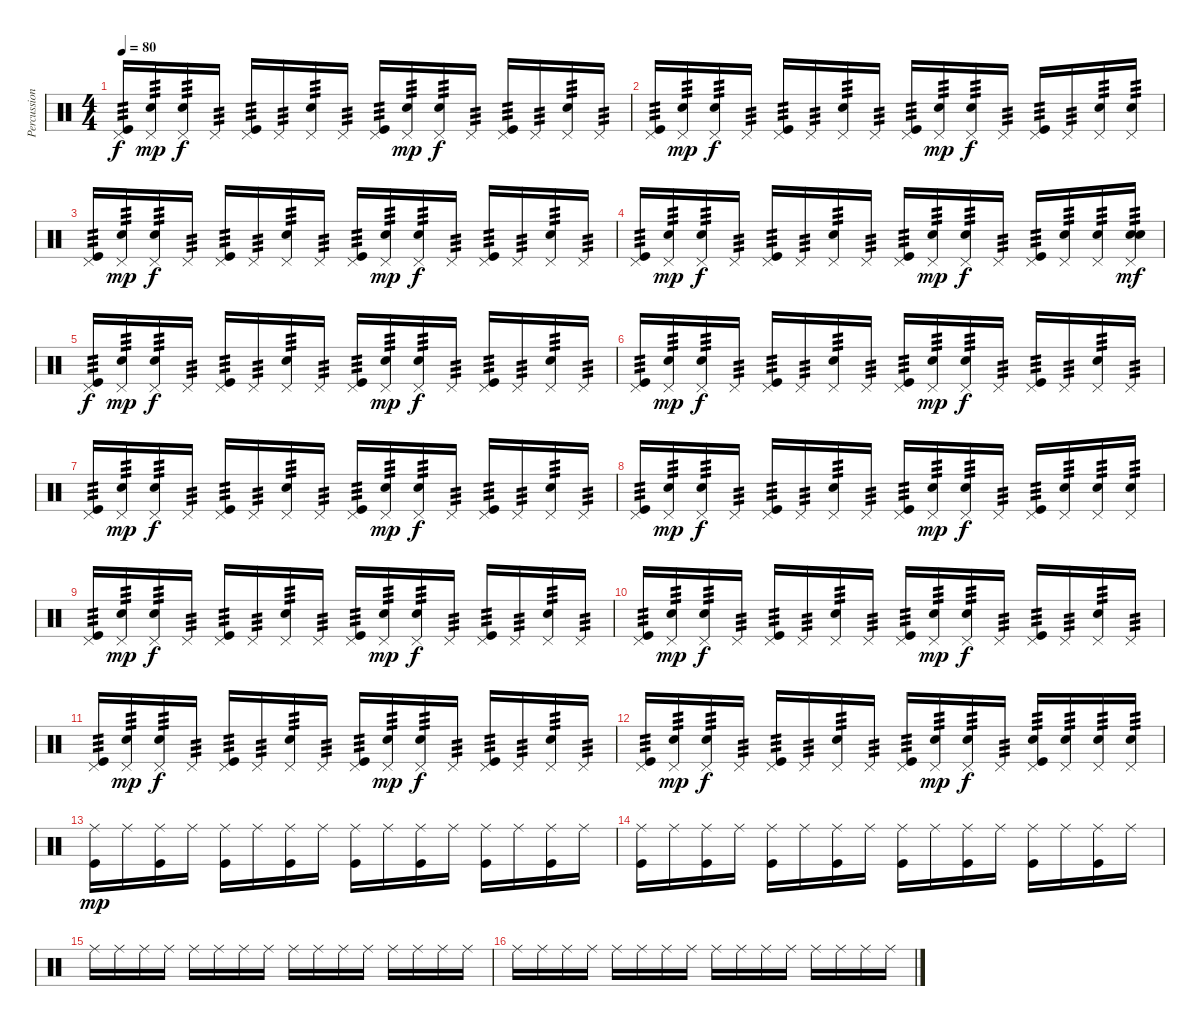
\track ("Percussion" "Percussion") {instrument percussion}
\staff {score}
\articulation defaults
\ts (4 4)
\tempo 80
\clef neutral
\ks c
("Kick (hit)" "Pedal Hi-Hat (hit)").16{tp 3 dy f} ("Hand Clap (hit)" "Pedal Hi-Hat (hit)").16{tp 3 dy mp} ("Hand Clap (hit)" "Pedal Hi-Hat (hit)").16{tp 3 dy f} "Pedal Hi-Hat (hit)".16{tp 3} ("Kick (hit)" "Pedal Hi-Hat (hit)").16{tp 3} "Pedal Hi-Hat (hit)".16{tp 3} ("Hand Clap (hit)" "Pedal Hi-Hat (hit)").16{tp 3} "Pedal Hi-Hat (hit)".16{tp 3} ("Kick (hit)" "Pedal Hi-Hat (hit)").16{tp 3} ("Hand Clap (hit)" "Pedal Hi-Hat (hit)").16{tp 3 dy mp} ("Hand Clap (hit)" "Pedal Hi-Hat (hit)").16{tp 3 dy f} "Pedal Hi-Hat (hit)".16{tp 3} ("Kick (hit)" "Pedal Hi-Hat (hit)").16{tp 3} "Pedal Hi-Hat (hit)".16{tp 3} ("Hand Clap (hit)" "Pedal Hi-Hat (hit)").16{tp 3} "Pedal Hi-Hat (hit)".16{tp 3} |
("Kick (hit)" "Pedal Hi-Hat (hit)").16{tp 3} ("Hand Clap (hit)" "Pedal Hi-Hat (hit)").16{tp 3 dy mp} ("Hand Clap (hit)" "Pedal Hi-Hat (hit)").16{tp 3 dy f} "Pedal Hi-Hat (hit)".16{tp 3} ("Kick (hit)" "Pedal Hi-Hat (hit)").16{tp 3} "Pedal Hi-Hat (hit)".16{tp 3} ("Hand Clap (hit)" "Pedal Hi-Hat (hit)").16{tp 3} "Pedal Hi-Hat (hit)".16{tp 3} ("Kick (hit)" "Pedal Hi-Hat (hit)").16{tp 3} ("Hand Clap (hit)" "Pedal Hi-Hat (hit)").16{tp 3 dy mp} ("Hand Clap (hit)" "Pedal Hi-Hat (hit)").16{tp 3 dy f} "Pedal Hi-Hat (hit)".16{tp 3} ("Kick (hit)" "Pedal Hi-Hat (hit)").16{tp 3} "Pedal Hi-Hat (hit)".16{tp 3} ("Hand Clap (hit)" "Pedal Hi-Hat (hit)").16{tp 3} ("Hand Clap (hit)" "Pedal Hi-Hat (hit)").16{tp 3} |
("Kick (hit)" "Pedal Hi-Hat (hit)").16{tp 3} ("Hand Clap (hit)" "Pedal Hi-Hat (hit)").16{tp 3 dy mp} ("Hand Clap (hit)" "Pedal Hi-Hat (hit)").16{tp 3 dy f} "Pedal Hi-Hat (hit)".16{tp 3} ("Kick (hit)" "Pedal Hi-Hat (hit)").16{tp 3} "Pedal Hi-Hat (hit)".16{tp 3} ("Hand Clap (hit)" "Pedal Hi-Hat (hit)").16{tp 3} "Pedal Hi-Hat (hit)".16{tp 3} ("Kick (hit)" "Pedal Hi-Hat (hit)").16{tp 3} ("Hand Clap (hit)" "Pedal Hi-Hat (hit)").16{tp 3 dy mp} ("Hand Clap (hit)" "Pedal Hi-Hat (hit)").16{tp 3 dy f} "Pedal Hi-Hat (hit)".16{tp 3} ("Kick (hit)" "Pedal Hi-Hat (hit)").16{tp 3} "Pedal Hi-Hat (hit)".16{tp 3} ("Hand Clap (hit)" "Pedal Hi-Hat (hit)").16{tp 3} "Pedal Hi-Hat (hit)".16{tp 3} |
("Kick (hit)" "Pedal Hi-Hat (hit)").16{tp 3} ("Hand Clap (hit)" "Pedal Hi-Hat (hit)").16{tp 3 dy mp} ("Hand Clap (hit)" "Pedal Hi-Hat (hit)").16{tp 3 dy f} "Pedal Hi-Hat (hit)".16{tp 3} ("Kick (hit)" "Pedal Hi-Hat (hit)").16{tp 3} "Pedal Hi-Hat (hit)".16{tp 3} ("Hand Clap (hit)" "Pedal Hi-Hat (hit)").16{tp 3} "Pedal Hi-Hat (hit)".16{tp 3} ("Kick (hit)" "Pedal Hi-Hat (hit)").16{tp 3} ("Hand Clap (hit)" "Pedal Hi-Hat (hit)").16{tp 3 dy mp} ("Hand Clap (hit)" "Pedal Hi-Hat (hit)").16{tp 3 dy f} "Pedal Hi-Hat (hit)".16{tp 3} ("Kick (hit)" "Pedal Hi-Hat (hit)").16{tp 3} ("Electric Snare (hit)" "Pedal Hi-Hat (hit)").16{tp 3} ("Hand Clap (hit)" "Pedal Hi-Hat (hit)").16{tp 3} ("Electric Snare (hit)" "Hand Clap (hit)" "Pedal Hi-Hat (hit)").16{tp 3 dy mf} |
("Kick (hit)" "Pedal Hi-Hat (hit)").16{tp 3 dy f} ("Hand Clap (hit)" "Pedal Hi-Hat (hit)").16{tp 3 dy mp} ("Hand Clap (hit)" "Pedal Hi-Hat (hit)").16{tp 3 dy f} "Pedal Hi-Hat (hit)".16{tp 3} ("Kick (hit)" "Pedal Hi-Hat (hit)").16{tp 3} "Pedal Hi-Hat (hit)".16{tp 3} ("Hand Clap (hit)" "Pedal Hi-Hat (hit)").16{tp 3} "Pedal Hi-Hat (hit)".16{tp 3} ("Kick (hit)" "Pedal Hi-Hat (hit)").16{tp 3} ("Hand Clap (hit)" "Pedal Hi-Hat (hit)").16{tp 3 dy mp} ("Hand Clap (hit)" "Pedal Hi-Hat (hit)").16{tp 3 dy f} "Pedal Hi-Hat (hit)".16{tp 3} ("Kick (hit)" "Pedal Hi-Hat (hit)").16{tp 3} "Pedal Hi-Hat (hit)".16{tp 3} ("Hand Clap (hit)" "Pedal Hi-Hat (hit)").16{tp 3} "Pedal Hi-Hat (hit)".16{tp 3} |
("Kick (hit)" "Pedal Hi-Hat (hit)").16{tp 3} ("Hand Clap (hit)" "Pedal Hi-Hat (hit)").16{tp 3 dy mp} ("Hand Clap (hit)" "Pedal Hi-Hat (hit)").16{tp 3 dy f} "Pedal Hi-Hat (hit)".16{tp 3} ("Kick (hit)" "Pedal Hi-Hat (hit)").16{tp 3} "Pedal Hi-Hat (hit)".16{tp 3} ("Hand Clap (hit)" "Pedal Hi-Hat (hit)").16{tp 3} "Pedal Hi-Hat (hit)".16{tp 3} ("Kick (hit)" "Pedal Hi-Hat (hit)").16{tp 3} ("Hand Clap (hit)" "Pedal Hi-Hat (hit)").16{tp 3 dy mp} ("Hand Clap (hit)" "Pedal Hi-Hat (hit)").16{tp 3 dy f} "Pedal Hi-Hat (hit)".16{tp 3} ("Kick (hit)" "Pedal Hi-Hat (hit)").16{tp 3} "Pedal Hi-Hat (hit)".16{tp 3} ("Hand Clap (hit)" "Pedal Hi-Hat (hit)").16{tp 3} "Pedal Hi-Hat (hit)".16{tp 3} |
("Kick (hit)" "Pedal Hi-Hat (hit)").16{tp 3} ("Hand Clap (hit)" "Pedal Hi-Hat (hit)").16{tp 3 dy mp} ("Hand Clap (hit)" "Pedal Hi-Hat (hit)").16{tp 3 dy f} "Pedal Hi-Hat (hit)".16{tp 3} ("Kick (hit)" "Pedal Hi-Hat (hit)").16{tp 3} "Pedal Hi-Hat (hit)".16{tp 3} ("Hand Clap (hit)" "Pedal Hi-Hat (hit)").16{tp 3} "Pedal Hi-Hat (hit)".16{tp 3} ("Kick (hit)" "Pedal Hi-Hat (hit)").16{tp 3} ("Hand Clap (hit)" "Pedal Hi-Hat (hit)").16{tp 3 dy mp} ("Hand Clap (hit)" "Pedal Hi-Hat (hit)").16{tp 3 dy f} "Pedal Hi-Hat (hit)".16{tp 3} ("Kick (hit)" "Pedal Hi-Hat (hit)").16{tp 3} "Pedal Hi-Hat (hit)".16{tp 3} ("Hand Clap (hit)" "Pedal Hi-Hat (hit)").16{tp 3} "Pedal Hi-Hat (hit)".16{tp 3} |
("Kick (hit)" "Pedal Hi-Hat (hit)").16{tp 3} ("Hand Clap (hit)" "Pedal Hi-Hat (hit)").16{tp 3 dy mp} ("Hand Clap (hit)" "Pedal Hi-Hat (hit)").16{tp 3 dy f} "Pedal Hi-Hat (hit)".16{tp 3} ("Kick (hit)" "Pedal Hi-Hat (hit)").16{tp 3} "Pedal Hi-Hat (hit)".16{tp 3} ("Hand Clap (hit)" "Pedal Hi-Hat (hit)").16{tp 3} "Pedal Hi-Hat (hit)".16{tp 3} ("Kick (hit)" "Pedal Hi-Hat (hit)").16{tp 3} ("Hand Clap (hit)" "Pedal Hi-Hat (hit)").16{tp 3 dy mp} ("Hand Clap (hit)" "Pedal Hi-Hat (hit)").16{tp 3 dy f} "Pedal Hi-Hat (hit)".16{tp 3} ("Kick (hit)" "Pedal Hi-Hat (hit)").16{tp 3} ("Electric Snare (hit)" "Pedal Hi-Hat (hit)").16{tp 3} ("Hand Clap (hit)" "Pedal Hi-Hat (hit)").16{tp 3} ("Electric Snare (hit)" "Pedal Hi-Hat (hit)").16{tp 3} |
("Kick (hit)" "Pedal Hi-Hat (hit)").16{tp 3} ("Hand Clap (hit)" "Pedal Hi-Hat (hit)").16{tp 3 dy mp} ("Hand Clap (hit)" "Pedal Hi-Hat (hit)").16{tp 3 dy f} "Pedal Hi-Hat (hit)".16{tp 3} ("Kick (hit)" "Pedal Hi-Hat (hit)").16{tp 3} "Pedal Hi-Hat (hit)".16{tp 3} ("Hand Clap (hit)" "Pedal Hi-Hat (hit)").16{tp 3} "Pedal Hi-Hat (hit)".16{tp 3} ("Kick (hit)" "Pedal Hi-Hat (hit)").16{tp 3} ("Hand Clap (hit)" "Pedal Hi-Hat (hit)").16{tp 3 dy mp} ("Hand Clap (hit)" "Pedal Hi-Hat (hit)").16{tp 3 dy f} "Pedal Hi-Hat (hit)".16{tp 3} ("Kick (hit)" "Pedal Hi-Hat (hit)").16{tp 3} "Pedal Hi-Hat (hit)".16{tp 3} ("Hand Clap (hit)" "Pedal Hi-Hat (hit)").16{tp 3} "Pedal Hi-Hat (hit)".16{tp 3} |
("Kick (hit)" "Pedal Hi-Hat (hit)").16{tp 3} ("Hand Clap (hit)" "Pedal Hi-Hat (hit)").16{tp 3 dy mp} ("Hand Clap (hit)" "Pedal Hi-Hat (hit)").16{tp 3 dy f} "Pedal Hi-Hat (hit)".16{tp 3} ("Kick (hit)" "Pedal Hi-Hat (hit)").16{tp 3} "Pedal Hi-Hat (hit)".16{tp 3} ("Hand Clap (hit)" "Pedal Hi-Hat (hit)").16{tp 3} "Pedal Hi-Hat (hit)".16{tp 3} ("Kick (hit)" "Pedal Hi-Hat (hit)").16{tp 3} ("Hand Clap (hit)" "Pedal Hi-Hat (hit)").16{tp 3 dy mp} ("Hand Clap (hit)" "Pedal Hi-Hat (hit)").16{tp 3 dy f} "Pedal Hi-Hat (hit)".16{tp 3} ("Kick (hit)" "Pedal Hi-Hat (hit)").16{tp 3} "Pedal Hi-Hat (hit)".16{tp 3} ("Hand Clap (hit)" "Pedal Hi-Hat (hit)").16{tp 3} "Pedal Hi-Hat (hit)".16{tp 3} |
("Kick (hit)" "Pedal Hi-Hat (hit)").16{tp 3} ("Hand Clap (hit)" "Pedal Hi-Hat (hit)").16{tp 3 dy mp} ("Hand Clap (hit)" "Pedal Hi-Hat (hit)").16{tp 3 dy f} "Pedal Hi-Hat (hit)".16{tp 3} ("Kick (hit)" "Pedal Hi-Hat (hit)").16{tp 3} "Pedal Hi-Hat (hit)".16{tp 3} ("Hand Clap (hit)" "Pedal Hi-Hat (hit)").16{tp 3} "Pedal Hi-Hat (hit)".16{tp 3} ("Kick (hit)" "Pedal Hi-Hat (hit)").16{tp 3} ("Hand Clap (hit)" "Pedal Hi-Hat (hit)").16{tp 3 dy mp} ("Hand Clap (hit)" "Pedal Hi-Hat (hit)").16{tp 3 dy f} "Pedal Hi-Hat (hit)".16{tp 3} ("Kick (hit)" "Pedal Hi-Hat (hit)").16{tp 3} "Pedal Hi-Hat (hit)".16{tp 3} ("Hand Clap (hit)" "Pedal Hi-Hat (hit)").16{tp 3} "Pedal Hi-Hat (hit)".16{tp 3} |
("Kick (hit)" "Pedal Hi-Hat (hit)").16{tp 3} ("Hand Clap (hit)" "Pedal Hi-Hat (hit)").16{tp 3 dy mp} ("Hand Clap (hit)" "Pedal Hi-Hat (hit)").16{tp 3 dy f} "Pedal Hi-Hat (hit)".16{tp 3} ("Kick (hit)" "Pedal Hi-Hat (hit)").16{tp 3} "Pedal Hi-Hat (hit)".16{tp 3} ("Hand Clap (hit)" "Pedal Hi-Hat (hit)").16{tp 3} "Pedal Hi-Hat (hit)".16{tp 3} ("Kick (hit)" "Pedal Hi-Hat (hit)").16{tp 3} ("Hand Clap (hit)" "Pedal Hi-Hat (hit)").16{tp 3 dy mp} ("Hand Clap (hit)" "Pedal Hi-Hat (hit)").16{tp 3 dy f} "Pedal Hi-Hat (hit)".16{tp 3} ("Kick (hit)" "Electric Snare (hit)" "Pedal Hi-Hat (hit)").16{tp 3} ("Electric Snare (hit)" "Pedal Hi-Hat (hit)").16{tp 3} ("Electric Snare (hit)" "Pedal Hi-Hat (hit)").16{tp 3} ("Electric Snare (hit)" "Pedal Hi-Hat (hit)").16{tp 3} |
("Kick (hit)" "Ride (middle)").16{dy mp} "Ride (middle)".16 ("Kick (hit)" "Ride (middle)").16 "Ride (middle)".16 ("Kick (hit)" "Ride (middle)").16 "Ride (middle)".16 ("Kick (hit)" "Ride (middle)").16 "Ride (middle)".16 ("Kick (hit)" "Ride (middle)").16 "Ride (middle)".16 ("Kick (hit)" "Ride (middle)").16 "Ride (middle)".16 ("Kick (hit)" "Ride (middle)").16 "Ride (middle)".16 ("Kick (hit)" "Ride (middle)").16 "Ride (middle)".16 |
("Kick (hit)" "Ride (middle)").16 "Ride (middle)".16 ("Kick (hit)" "Ride (middle)").16 "Ride (middle)".16 ("Kick (hit)" "Ride (middle)").16 "Ride (middle)".16 ("Kick (hit)" "Ride (middle)").16 "Ride (middle)".16 ("Kick (hit)" "Ride (middle)").16 "Ride (middle)".16 ("Kick (hit)" "Ride (middle)").16 "Ride (middle)".16 ("Kick (hit)" "Ride (middle)").16 "Ride (middle)".16 ("Kick (hit)" "Ride (middle)").16 "Ride (middle)".16 |
"Ride (middle)".16 "Ride (middle)".16 "Ride (middle)".16 "Ride (middle)".16 "Ride (middle)".16 "Ride (middle)".16 "Ride (middle)".16 "Ride (middle)".16 "Ride (middle)".16 "Ride (middle)".16 "Ride (middle)".16 "Ride (middle)".16 "Ride (middle)".16 "Ride (middle)".16 "Ride (middle)".16 "Ride (middle)".16 |
"Ride (middle)".16 "Ride (middle)".16 "Ride (middle)".16 "Ride (middle)".16 "Ride (middle)".16 "Ride (middle)".16 "Ride (middle)".16 "Ride (middle)".16 "Ride (middle)".16 "Ride (middle)".16 "Ride (middle)".16 "Ride (middle)".16 "Ride (middle)".16 "Ride (middle)".16 "Ride (middle)".16 "Ride (middle)".16
